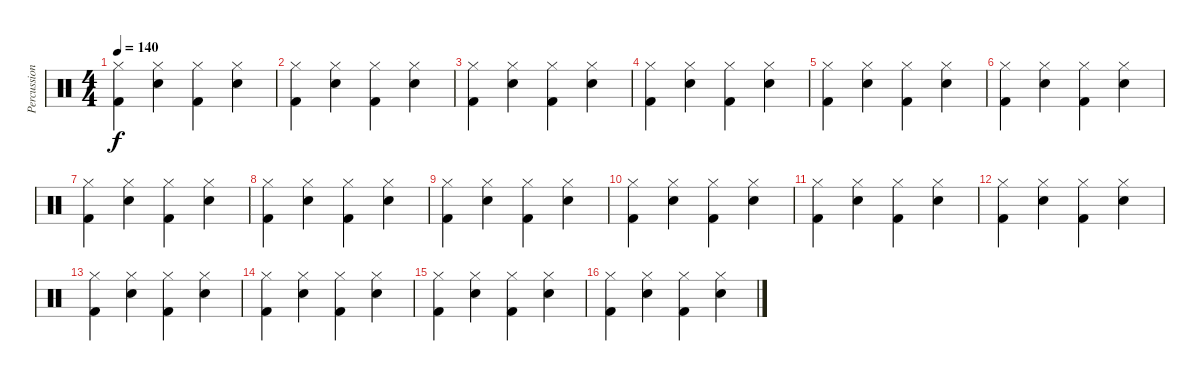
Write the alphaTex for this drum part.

\track ("Percussion" "Percussion") {instrument percussion}
\staff {score}
\articulation defaults
\ts (4 4)
\tempo 140
\clef neutral
\ks c
("Hi-Hat (closed)" "Kick (hit) 2").4{dy f} ("Hi-Hat (closed)" "Electric Snare (hit)").4 ("Hi-Hat (closed)" "Kick (hit) 2").4 ("Hi-Hat (closed)" "Electric Snare (hit)").4 |
("Hi-Hat (closed)" "Kick (hit) 2").4 ("Hi-Hat (closed)" "Electric Snare (hit)").4 ("Hi-Hat (closed)" "Kick (hit) 2").4 ("Hi-Hat (closed)" "Electric Snare (hit)").4 |
("Hi-Hat (closed)" "Kick (hit) 2").4 ("Hi-Hat (closed)" "Electric Snare (hit)").4 ("Hi-Hat (closed)" "Kick (hit) 2").4 ("Hi-Hat (closed)" "Electric Snare (hit)").4 |
("Hi-Hat (closed)" "Kick (hit) 2").4 ("Hi-Hat (closed)" "Electric Snare (hit)").4 ("Hi-Hat (closed)" "Kick (hit) 2").4 ("Hi-Hat (closed)" "Electric Snare (hit)").4 |
("Hi-Hat (closed)" "Kick (hit) 2").4 ("Hi-Hat (closed)" "Electric Snare (hit)").4 ("Hi-Hat (closed)" "Kick (hit) 2").4 ("Hi-Hat (closed)" "Electric Snare (hit)").4 |
("Hi-Hat (closed)" "Kick (hit) 2").4 ("Hi-Hat (closed)" "Electric Snare (hit)").4 ("Hi-Hat (closed)" "Kick (hit) 2").4 ("Hi-Hat (closed)" "Electric Snare (hit)").4 |
("Hi-Hat (closed)" "Kick (hit) 2").4 ("Hi-Hat (closed)" "Electric Snare (hit)").4 ("Hi-Hat (closed)" "Kick (hit) 2").4 ("Hi-Hat (closed)" "Electric Snare (hit)").4 |
("Hi-Hat (closed)" "Kick (hit) 2").4 ("Hi-Hat (closed)" "Electric Snare (hit)").4 ("Hi-Hat (closed)" "Kick (hit) 2").4 ("Hi-Hat (closed)" "Electric Snare (hit)").4 |
("Hi-Hat (closed)" "Kick (hit) 2").4 ("Hi-Hat (closed)" "Electric Snare (hit)").4 ("Hi-Hat (closed)" "Kick (hit) 2").4 ("Hi-Hat (closed)" "Electric Snare (hit)").4 |
("Hi-Hat (closed)" "Kick (hit) 2").4 ("Hi-Hat (closed)" "Electric Snare (hit)").4 ("Hi-Hat (closed)" "Kick (hit) 2").4 ("Hi-Hat (closed)" "Electric Snare (hit)").4 |
("Hi-Hat (closed)" "Kick (hit) 2").4 ("Hi-Hat (closed)" "Electric Snare (hit)").4 ("Hi-Hat (closed)" "Kick (hit) 2").4 ("Hi-Hat (closed)" "Electric Snare (hit)").4 |
("Hi-Hat (closed)" "Kick (hit) 2").4 ("Hi-Hat (closed)" "Electric Snare (hit)").4 ("Hi-Hat (closed)" "Kick (hit) 2").4 ("Hi-Hat (closed)" "Electric Snare (hit)").4 |
("Hi-Hat (closed)" "Kick (hit) 2").4 ("Hi-Hat (closed)" "Electric Snare (hit)").4 ("Hi-Hat (closed)" "Kick (hit) 2").4 ("Hi-Hat (closed)" "Electric Snare (hit)").4 |
("Hi-Hat (closed)" "Kick (hit) 2").4 ("Hi-Hat (closed)" "Electric Snare (hit)").4 ("Hi-Hat (closed)" "Kick (hit) 2").4 ("Hi-Hat (closed)" "Electric Snare (hit)").4 |
("Hi-Hat (closed)" "Kick (hit) 2").4 ("Hi-Hat (closed)" "Electric Snare (hit)").4 ("Hi-Hat (closed)" "Kick (hit) 2").4 ("Hi-Hat (closed)" "Electric Snare (hit)").4 |
("Hi-Hat (closed)" "Kick (hit) 2").4 ("Hi-Hat (closed)" "Electric Snare (hit)").4 ("Hi-Hat (closed)" "Kick (hit) 2").4 ("Hi-Hat (closed)" "Electric Snare (hit)").4
